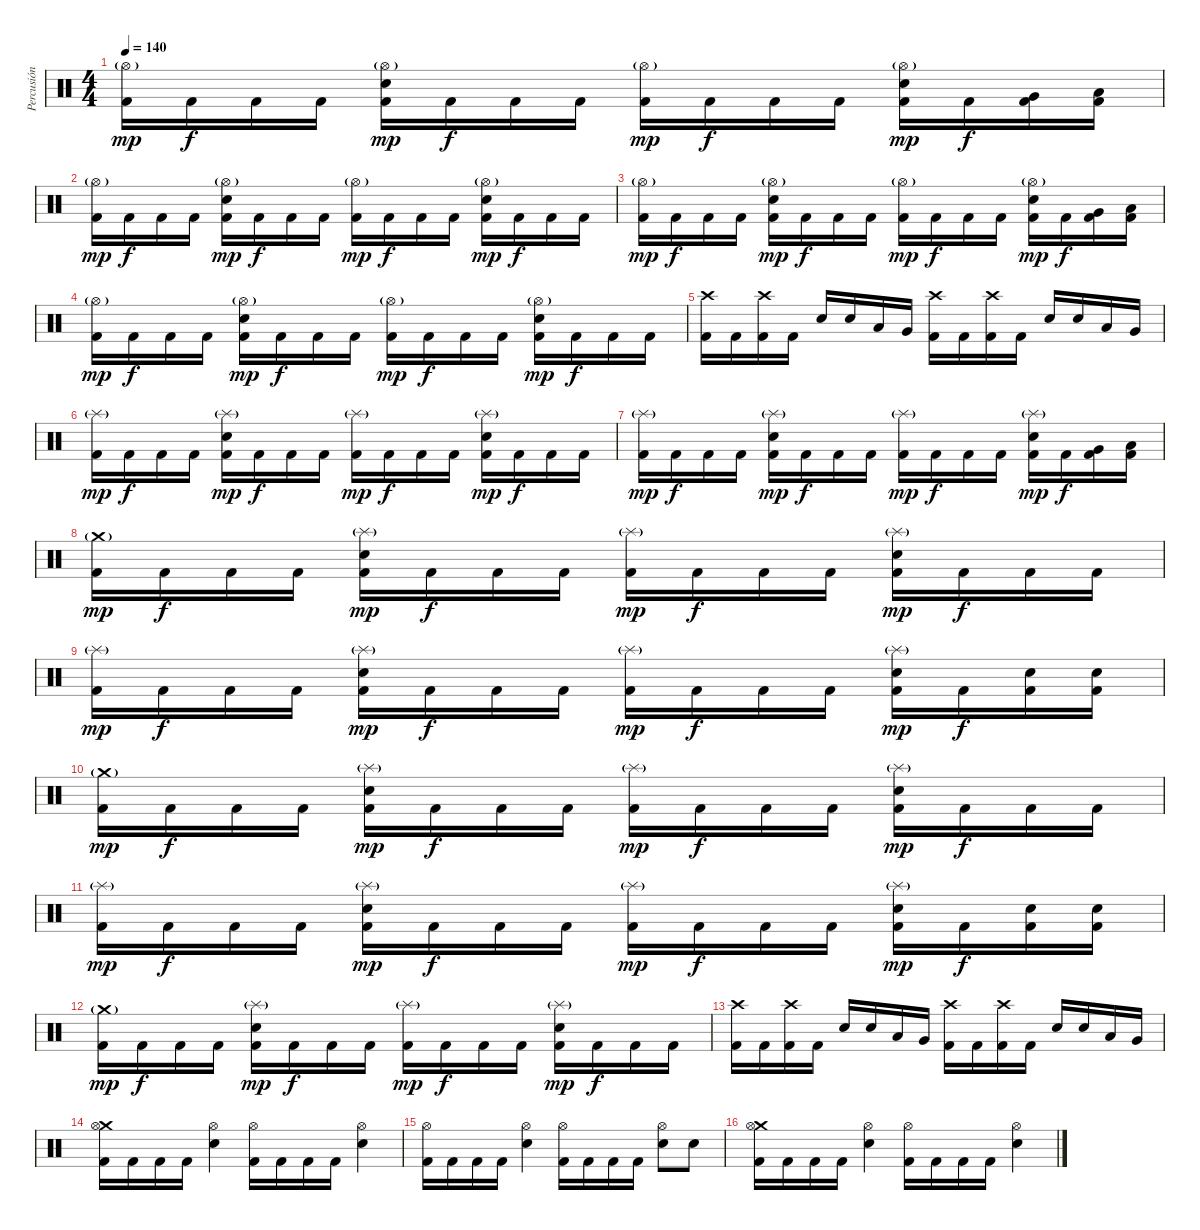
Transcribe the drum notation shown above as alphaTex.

\track ("Percusión" "Percusión") {instrument percussion}
\staff {score}
\articulation defaults
\ts (4 4)
\tempo 140
\clef neutral
\ks c
("Hi-Hat (open)"{g} "Kick (hit) 2").16{dy mp} "Kick (hit) 2".16{dy f} "Kick (hit) 2".16 "Kick (hit) 2".16 ("Hi-Hat (open)"{g} "Electric Snare (hit)" "Kick (hit) 2").16{dy mp} "Kick (hit) 2".16{dy f} "Kick (hit) 2".16 "Kick (hit) 2".16 ("Hi-Hat (open)"{g} "Kick (hit) 2").16{dy mp} "Kick (hit) 2".16{dy f} "Kick (hit) 2".16 "Kick (hit) 2".16 ("Hi-Hat (open)"{g} "Electric Snare (hit)" "Kick (hit) 2").16{dy mp} "Kick (hit) 2".16{dy f} ("Very Low Tom (hit)" "Kick (hit) 2").16 ("Low Floor Tom (hit)" "Kick (hit) 2").16 |
("Hi-Hat (open)"{g} "Kick (hit) 2").16{dy mp} "Kick (hit) 2".16{dy f} "Kick (hit) 2".16 "Kick (hit) 2".16 ("Hi-Hat (open)"{g} "Electric Snare (hit)" "Kick (hit) 2").16{dy mp} "Kick (hit) 2".16{dy f} "Kick (hit) 2".16 "Kick (hit) 2".16 ("Hi-Hat (open)"{g} "Kick (hit) 2").16{dy mp} "Kick (hit) 2".16{dy f} "Kick (hit) 2".16 "Kick (hit) 2".16 ("Hi-Hat (open)"{g} "Electric Snare (hit)" "Kick (hit) 2").16{dy mp} "Kick (hit) 2".16{dy f} "Kick (hit) 2".16 "Kick (hit) 2".16 |
("Hi-Hat (open)"{g} "Kick (hit) 2").16{dy mp} "Kick (hit) 2".16{dy f} "Kick (hit) 2".16 "Kick (hit) 2".16 ("Hi-Hat (open)"{g} "Electric Snare (hit)" "Kick (hit) 2").16{dy mp} "Kick (hit) 2".16{dy f} "Kick (hit) 2".16 "Kick (hit) 2".16 ("Hi-Hat (open)"{g} "Kick (hit) 2").16{dy mp} "Kick (hit) 2".16{dy f} "Kick (hit) 2".16 "Kick (hit) 2".16 ("Hi-Hat (open)"{g} "Electric Snare (hit)" "Kick (hit) 2").16{dy mp} "Kick (hit) 2".16{dy f} ("Very Low Tom (hit)" "Kick (hit) 2").16 ("Low Floor Tom (hit)" "Kick (hit) 2").16 |
("Hi-Hat (open)"{g} "Kick (hit) 2").16{dy mp} "Kick (hit) 2".16{dy f} "Kick (hit) 2".16 "Kick (hit) 2".16 ("Hi-Hat (open)"{g} "Electric Snare (hit)" "Kick (hit) 2").16{dy mp} "Kick (hit) 2".16{dy f} "Kick (hit) 2".16 "Kick (hit) 2".16 ("Hi-Hat (open)"{g} "Kick (hit) 2").16{dy mp} "Kick (hit) 2".16{dy f} "Kick (hit) 2".16 "Kick (hit) 2".16 ("Hi-Hat (open)"{g} "Electric Snare (hit)" "Kick (hit) 2").16{dy mp} "Kick (hit) 2".16{dy f} "Kick (hit) 2".16 "Kick (hit) 2".16 |
("Crash high (hit)" "Kick (hit) 2").16 "Kick (hit) 2".16 ("Crash high (hit)" "Kick (hit) 2").16 "Kick (hit) 2".16 "Electric Snare (hit)".16 "Electric Snare (hit)".16 "Low Tom (hit)".16 "Very Low Tom (hit)".16 ("Crash high (hit)" "Kick (hit) 2").16 "Kick (hit) 2".16 ("Crash high (hit)" "Kick (hit) 2").16 "Kick (hit) 2".16 "Electric Snare (hit)".16 "Electric Snare (hit)".16 "Low Tom (hit)".16 "Very Low Tom (hit)".16 |
("Splash (hit)"{g} "Kick (hit) 2").16{dy mp} "Kick (hit) 2".16{dy f} "Kick (hit) 2".16 "Kick (hit) 2".16 ("Splash (hit)"{g} "Electric Snare (hit)" "Kick (hit) 2").16{dy mp} "Kick (hit) 2".16{dy f} "Kick (hit) 2".16 "Kick (hit) 2".16 ("Splash (hit)"{g} "Kick (hit) 2").16{dy mp} "Kick (hit) 2".16{dy f} "Kick (hit) 2".16 "Kick (hit) 2".16 ("Splash (hit)"{g} "Electric Snare (hit)" "Kick (hit) 2").16{dy mp} "Kick (hit) 2".16{dy f} "Kick (hit) 2".16 "Kick (hit) 2".16 |
("Splash (hit)"{g} "Kick (hit) 2").16{dy mp} "Kick (hit) 2".16{dy f} "Kick (hit) 2".16 "Kick (hit) 2".16 ("Splash (hit)"{g} "Electric Snare (hit)" "Kick (hit) 2").16{dy mp} "Kick (hit) 2".16{dy f} "Kick (hit) 2".16 "Kick (hit) 2".16 ("Splash (hit)"{g} "Kick (hit) 2").16{dy mp} "Kick (hit) 2".16{dy f} "Kick (hit) 2".16 "Kick (hit) 2".16 ("Splash (hit)"{g} "Electric Snare (hit)" "Kick (hit) 2").16{dy mp} "Kick (hit) 2".16{dy f} ("Very Low Tom (hit)" "Kick (hit) 2").16 ("Low Floor Tom (hit)" "Kick (hit) 2").16 |
("Crash medium (hit)"{g} "Kick (hit) 2").16{dy mp} "Kick (hit) 2".16{dy f} "Kick (hit) 2".16 "Kick (hit) 2".16 ("Splash (hit)"{g} "Electric Snare (hit)" "Kick (hit) 2").16{dy mp} "Kick (hit) 2".16{dy f} "Kick (hit) 2".16 "Kick (hit) 2".16 ("Splash (hit)"{g} "Kick (hit) 2").16{dy mp} "Kick (hit) 2".16{dy f} "Kick (hit) 2".16 "Kick (hit) 2".16 ("Splash (hit)"{g} "Electric Snare (hit)" "Kick (hit) 2").16{dy mp} "Kick (hit) 2".16{dy f} "Kick (hit) 2".16 "Kick (hit) 2".16 |
("Splash (hit)"{g} "Kick (hit) 2").16{dy mp} "Kick (hit) 2".16{dy f} "Kick (hit) 2".16 "Kick (hit) 2".16 ("Splash (hit)"{g} "Electric Snare (hit)" "Kick (hit) 2").16{dy mp} "Kick (hit) 2".16{dy f} "Kick (hit) 2".16 "Kick (hit) 2".16 ("Splash (hit)"{g} "Kick (hit) 2").16{dy mp} "Kick (hit) 2".16{dy f} "Kick (hit) 2".16 "Kick (hit) 2".16 ("Splash (hit)"{g} "Electric Snare (hit)" "Kick (hit) 2").16{dy mp} "Kick (hit) 2".16{dy f} ("Electric Snare (hit)" "Kick (hit) 2").16 ("Electric Snare (hit)" "Kick (hit) 2").16 |
("Crash medium (hit)"{g} "Kick (hit) 2").16{dy mp} "Kick (hit) 2".16{dy f} "Kick (hit) 2".16 "Kick (hit) 2".16 ("Splash (hit)"{g} "Electric Snare (hit)" "Kick (hit) 2").16{dy mp} "Kick (hit) 2".16{dy f} "Kick (hit) 2".16 "Kick (hit) 2".16 ("Splash (hit)"{g} "Kick (hit) 2").16{dy mp} "Kick (hit) 2".16{dy f} "Kick (hit) 2".16 "Kick (hit) 2".16 ("Splash (hit)"{g} "Electric Snare (hit)" "Kick (hit) 2").16{dy mp} "Kick (hit) 2".16{dy f} "Kick (hit) 2".16 "Kick (hit) 2".16 |
("Splash (hit)"{g} "Kick (hit) 2").16{dy mp} "Kick (hit) 2".16{dy f} "Kick (hit) 2".16 "Kick (hit) 2".16 ("Splash (hit)"{g} "Electric Snare (hit)" "Kick (hit) 2").16{dy mp} "Kick (hit) 2".16{dy f} "Kick (hit) 2".16 "Kick (hit) 2".16 ("Splash (hit)"{g} "Kick (hit) 2").16{dy mp} "Kick (hit) 2".16{dy f} "Kick (hit) 2".16 "Kick (hit) 2".16 ("Splash (hit)"{g} "Electric Snare (hit)" "Kick (hit) 2").16{dy mp} "Kick (hit) 2".16{dy f} ("Electric Snare (hit)" "Kick (hit) 2").16 ("Electric Snare (hit)" "Kick (hit) 2").16 |
("Crash medium (hit)"{g} "Kick (hit) 2").16{dy mp} "Kick (hit) 2".16{dy f} "Kick (hit) 2".16 "Kick (hit) 2".16 ("Splash (hit)"{g} "Electric Snare (hit)" "Kick (hit) 2").16{dy mp} "Kick (hit) 2".16{dy f} "Kick (hit) 2".16 "Kick (hit) 2".16 ("Splash (hit)"{g} "Kick (hit) 2").16{dy mp} "Kick (hit) 2".16{dy f} "Kick (hit) 2".16 "Kick (hit) 2".16 ("Splash (hit)"{g} "Electric Snare (hit)" "Kick (hit) 2").16{dy mp} "Kick (hit) 2".16{dy f} "Kick (hit) 2".16 "Kick (hit) 2".16 |
("Crash high (hit)" "Kick (hit) 2").16 "Kick (hit) 2".16 ("Crash high (hit)" "Kick (hit) 2").16 "Kick (hit) 2".16 "Electric Snare (hit)".16 "Electric Snare (hit)".16 "Low Tom (hit)".16 "Very Low Tom (hit)".16 ("Crash high (hit)" "Kick (hit) 2").16 "Kick (hit) 2".16 ("Crash high (hit)" "Kick (hit) 2").16 "Kick (hit) 2".16 "Electric Snare (hit)".16 "Electric Snare (hit)".16 "Low Tom (hit)".16 "Very Low Tom (hit)".16 |
("Crash medium (hit)" "Hi-Hat (open)" "Kick (hit) 2").16 "Kick (hit) 2".16 "Kick (hit) 2".16 "Kick (hit) 2".16 ("Hi-Hat (open)" "Electric Snare (hit)").4 ("Hi-Hat (open)" "Kick (hit) 2").16 "Kick (hit) 2".16 "Kick (hit) 2".16 "Kick (hit) 2".16 ("Hi-Hat (open)" "Electric Snare (hit)").4 |
("Hi-Hat (open)" "Kick (hit) 2").16 "Kick (hit) 2".16 "Kick (hit) 2".16 "Kick (hit) 2".16 ("Hi-Hat (open)" "Electric Snare (hit)").4 ("Hi-Hat (open)" "Kick (hit) 2").16 "Kick (hit) 2".16 "Kick (hit) 2".16 "Kick (hit) 2".16 ("Hi-Hat (open)" "Electric Snare (hit)").8 "Electric Snare (hit)".8 |
("Crash medium (hit)" "Hi-Hat (open)" "Kick (hit) 2").16 "Kick (hit) 2".16 "Kick (hit) 2".16 "Kick (hit) 2".16 ("Hi-Hat (open)" "Electric Snare (hit)").4 ("Hi-Hat (open)" "Kick (hit) 2").16 "Kick (hit) 2".16 "Kick (hit) 2".16 "Kick (hit) 2".16 ("Hi-Hat (open)" "Electric Snare (hit)").4
